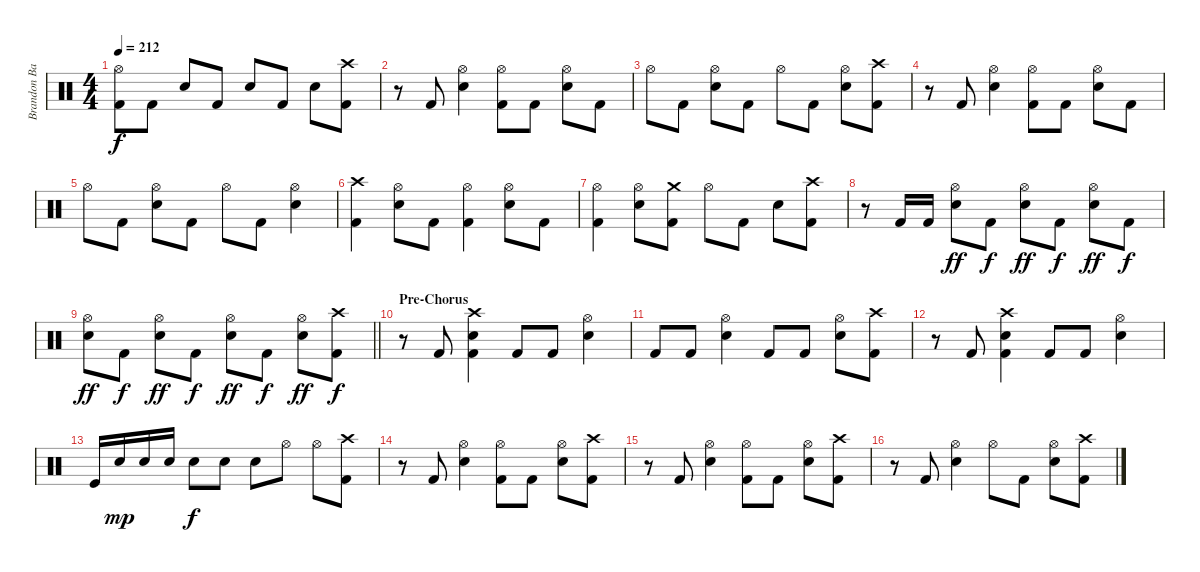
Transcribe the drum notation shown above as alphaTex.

\track ("Brandon Barnes - Drums" "Brandon Ba") {instrument percussion}
\staff {score}
\articulation defaults
\ts (4 4)
\tempo 212
\clef neutral
\ks c
("Kick (hit) 2" "Hi-Hat (open)").8{dy f} "Kick (hit) 2".8 "Snare (hit) 2".8 "Kick (hit) 2".8 "Snare (hit) 2".8 "Kick (hit) 2".8 "Snare (hit) 2".8 ("Kick (hit) 2" "Crash high (hit)").8 |
r.8 "Kick (hit) 2".8 ("Snare (hit) 2" "Hi-Hat (open)").4 ("Kick (hit) 2" "Hi-Hat (open)").8 "Kick (hit) 2".8 ("Snare (hit) 2" "Hi-Hat (open)").8 "Kick (hit) 2".8 |
"Hi-Hat (open)".8 "Kick (hit) 2".8 ("Snare (hit) 2" "Hi-Hat (open)").8 "Kick (hit) 2".8 "Hi-Hat (open)".8 "Kick (hit) 2".8 ("Snare (hit) 2" "Hi-Hat (open)").8 ("Kick (hit) 2" "Crash high (hit)").8 |
r.8 "Kick (hit) 2".8 ("Snare (hit) 2" "Hi-Hat (open)").4 ("Kick (hit) 2" "Hi-Hat (open)").8 "Kick (hit) 2".8 ("Snare (hit) 2" "Hi-Hat (open)").8 "Kick (hit) 2".8 |
"Hi-Hat (open)".8 "Kick (hit) 2".8 ("Snare (hit) 2" "Hi-Hat (open)").8 "Kick (hit) 2".8 "Hi-Hat (open)".8 "Kick (hit) 2".8 ("Snare (hit) 2" "Hi-Hat (open)").4 |
("Kick (hit) 2" "Crash high (hit)").4 ("Snare (hit) 2" "Hi-Hat (open)").8 "Kick (hit) 2".8 ("Kick (hit) 2" "Hi-Hat (open)").4 ("Snare (hit) 2" "Hi-Hat (open)").8 "Kick (hit) 2".8 |
("Kick (hit) 2" "Hi-Hat (open)").4 ("Snare (hit) 2" "Hi-Hat (open)").8 ("Kick (hit) 2" "Crash medium (hit)").8 "Hi-Hat (open)".8 "Kick (hit) 2".8 "Snare (hit) 2".8 ("Kick (hit) 2" "Crash high (hit)").8 |
r.8 "Kick (hit) 2".16 "Kick (hit) 2".16 ("Snare (hit) 2" "Hi-Hat (open)").8{dy ff} "Kick (hit) 2".8{dy f} ("Snare (hit) 2" "Hi-Hat (open)").8{dy ff} "Kick (hit) 2".8{dy f} ("Snare (hit) 2" "Hi-Hat (open)").8{dy ff} "Kick (hit) 2".8{dy f} |
\barLineRight lightlight
("Snare (hit) 2" "Hi-Hat (open)").8{dy ff} "Kick (hit) 2".8{dy f} ("Snare (hit) 2" "Hi-Hat (open)").8{dy ff} "Kick (hit) 2".8{dy f} ("Snare (hit) 2" "Hi-Hat (open)").8{dy ff} "Kick (hit) 2".8{dy f} ("Snare (hit) 2" "Hi-Hat (open)").8{dy ff} ("Kick (hit) 2" "Crash high (hit)").8{dy f} |
\section ("" "Pre-Chorus")
r.8 "Kick (hit) 2".8 ("Kick (hit) 2" "Snare (hit) 2" "Crash high (hit)").4 "Kick (hit) 2".8 "Kick (hit) 2".8 ("Snare (hit) 2" "Hi-Hat (open)").4 |
"Kick (hit) 2".8 "Kick (hit) 2".8 ("Snare (hit) 2" "Hi-Hat (open)").4 "Kick (hit) 2".8 "Kick (hit) 2".8 ("Snare (hit) 2" "Hi-Hat (open)").8 ("Kick (hit) 2" "Crash high (hit)").8 |
r.8 "Kick (hit) 2".8 ("Kick (hit) 2" "Snare (hit) 2" "Crash high (hit)").4 "Kick (hit) 2".8 "Kick (hit) 2".8 ("Snare (hit) 2" "Hi-Hat (open)").4 |
"Kick (hit)".16 "Snare (hit) 2".16{dy mp} "Snare (hit) 2".16 "Snare (hit) 2".16 "Snare (hit) 2".8{dy f} "Snare (hit) 2".8 "Snare (hit) 2".8 "Hi-Hat (open)".8 "Hi-Hat (open)".8 ("Crash high (hit)" "Kick (hit) 2").8 |
r.8 "Kick (hit) 2".8 ("Snare (hit) 2" "Hi-Hat (open)").4 ("Kick (hit) 2" "Hi-Hat (open)").8 "Kick (hit) 2".8 ("Snare (hit) 2" "Hi-Hat (open)").8 ("Kick (hit) 2" "Crash high (hit)").8 |
r.8 "Kick (hit) 2".8 ("Snare (hit) 2" "Hi-Hat (open)").4 ("Kick (hit) 2" "Hi-Hat (open)").8 "Kick (hit) 2".8 ("Snare (hit) 2" "Hi-Hat (open)").8 ("Kick (hit) 2" "Crash high (hit)").8 |
r.8 "Kick (hit) 2".8 ("Snare (hit) 2" "Hi-Hat (open)").4 "Hi-Hat (open)".8 "Kick (hit) 2".8 ("Snare (hit) 2" "Hi-Hat (open)").8 ("Kick (hit) 2" "Crash high (hit)").8
